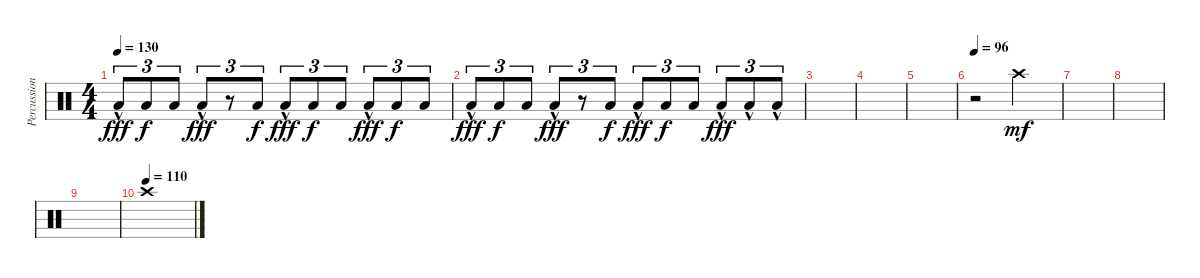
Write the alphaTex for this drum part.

\track ("Percussion" "Percussion") {instrument percussion}
\staff {score}
\articulation defaults
\ts (4 4)
\tempo 130
\clef neutral
\ks c "Low Tom (hit)"{hac}.8{tu (3 2) dy fff volume 2} "Low Tom (hit)".8{tu (3 2) dy f} "Low Tom (hit)".8{tu (3 2)} "Low Tom (hit)"{hac}.8{tu (3 2) dy fff}
r.8{tu (3 2)} "Low Tom (hit)".8{tu (3 2) dy f} "Low Tom (hit)"{hac}.8{tu (3 2) dy fff} "Low Tom (hit)".8{tu (3 2) dy f} "Low Tom (hit)".8{tu (3 2)} "Low Tom (hit)"{hac}.8{tu (3 2) dy fff} "Low Tom (hit)".8{tu (3 2) dy f} "Low Tom (hit)".8{tu (3 2)} |
"Low Tom (hit)"{hac}.8{tu (3 2) dy fff} "Low Tom (hit)".8{tu (3 2) dy f} "Low Tom (hit)".8{tu (3 2)} "Low Tom (hit)"{hac}.8{tu (3 2) dy fff} r.8{tu (3 2)} "Low Tom (hit)".8{tu (3 2) dy f} "Low Tom (hit)"{hac}.8{tu (3 2) dy fff} "Low Tom (hit)".8{tu (3 2) dy f} "Low Tom (hit)".8{tu (3 2)} "Low Tom (hit)"{hac}.8{tu (3 2) dy fff} "Low Tom (hit)"{hac}.8{tu (3 2)} "Low Tom (hit)"{hac}.8{tu (3 2)} |
|
|
|
\tempo 96
r.2 "Crash high (hit)".2{dy mf volume 13} |
|
|
|
\tempo (110)
"Crash high (hit)".1
